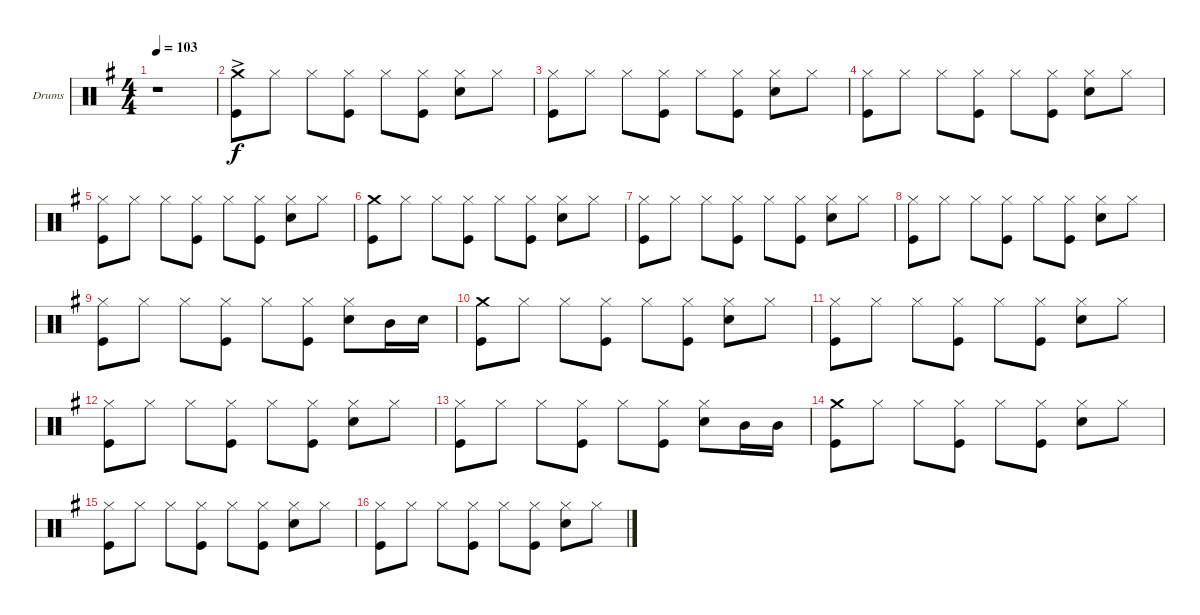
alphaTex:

\bracketExtendMode groupsimilarinstruments
\firstSystemTrackNameOrientation horizontal
\otherSystemsTrackNameOrientation horizontal
\track ("Drumkit" "Drums") {instrument percussion}
\staff {score}
\articulation defaults
\ts (4 4)
\tempo 103
\clef neutral
\ks eminor
r.1{dy f} |
("Crash medium (hit)"{ac} "Kick (hit)").8 "Hi-Hat (closed)".8 "Hi-Hat (closed)".8 ("Hi-Hat (closed)" "Kick (hit)").8 "Hi-Hat (closed)".8 ("Hi-Hat (closed)" "Kick (hit)").8 ("Hi-Hat (closed)" "Snare (hit) 2").8 "Hi-Hat (closed)".8 |
("Hi-Hat (closed)" "Kick (hit)").8 "Hi-Hat (closed)".8 "Hi-Hat (closed)".8 ("Hi-Hat (closed)" "Kick (hit)").8 "Hi-Hat (closed)".8 ("Hi-Hat (closed)" "Kick (hit)").8 ("Hi-Hat (closed)" "Snare (hit) 2").8 "Hi-Hat (closed)".8 |
("Hi-Hat (closed)" "Kick (hit)").8 "Hi-Hat (closed)".8 "Hi-Hat (closed)".8 ("Hi-Hat (closed)" "Kick (hit)").8 "Hi-Hat (closed)".8 ("Hi-Hat (closed)" "Kick (hit)").8 ("Hi-Hat (closed)" "Snare (hit) 2").8 "Hi-Hat (closed)".8 |
("Hi-Hat (closed)" "Kick (hit)").8 "Hi-Hat (closed)".8 "Hi-Hat (closed)".8 ("Hi-Hat (closed)" "Kick (hit)").8 "Hi-Hat (closed)".8 ("Hi-Hat (closed)" "Kick (hit)").8 ("Hi-Hat (closed)" "Snare (hit) 2").8 "Hi-Hat (closed)".8 |
("Crash medium (hit)" "Kick (hit)").8 "Hi-Hat (closed)".8 "Hi-Hat (closed)".8 ("Hi-Hat (closed)" "Kick (hit)").8 "Hi-Hat (closed)".8 ("Hi-Hat (closed)" "Kick (hit)").8 ("Hi-Hat (closed)" "Snare (hit) 2").8 "Hi-Hat (closed)".8 |
("Hi-Hat (closed)" "Kick (hit)").8 "Hi-Hat (closed)".8 "Hi-Hat (closed)".8 ("Hi-Hat (closed)" "Kick (hit)").8 "Hi-Hat (closed)".8 ("Hi-Hat (closed)" "Kick (hit)").8 ("Hi-Hat (closed)" "Snare (hit) 2").8 "Hi-Hat (closed)".8 |
("Hi-Hat (closed)" "Kick (hit)").8 "Hi-Hat (closed)".8 "Hi-Hat (closed)".8 ("Hi-Hat (closed)" "Kick (hit)").8 "Hi-Hat (closed)".8 ("Hi-Hat (closed)" "Kick (hit)").8 ("Hi-Hat (closed)" "Snare (hit) 2").8 "Hi-Hat (closed)".8 |
("Hi-Hat (closed)" "Kick (hit)").8 "Hi-Hat (closed)".8 "Hi-Hat (closed)".8 ("Hi-Hat (closed)" "Kick (hit)").8 "Hi-Hat (closed)".8 ("Hi-Hat (closed)" "Kick (hit)").8 ("Hi-Hat (closed)" "Snare (hit) 2").8 "Mid Tom (hit)".16 "Snare (hit) 2".16 |
("Crash medium (hit)" "Kick (hit)").8 "Hi-Hat (closed)".8 "Hi-Hat (closed)".8 ("Hi-Hat (closed)" "Kick (hit)").8 "Hi-Hat (closed)".8 ("Hi-Hat (closed)" "Kick (hit)").8 ("Hi-Hat (closed)" "Snare (hit) 2").8 "Hi-Hat (closed)".8 |
("Hi-Hat (closed)" "Kick (hit)").8 "Hi-Hat (closed)".8 "Hi-Hat (closed)".8 ("Hi-Hat (closed)" "Kick (hit)").8 "Hi-Hat (closed)".8 ("Hi-Hat (closed)" "Kick (hit)").8 ("Hi-Hat (closed)" "Snare (hit) 2").8 "Hi-Hat (closed)".8 |
("Hi-Hat (closed)" "Kick (hit)").8 "Hi-Hat (closed)".8 "Hi-Hat (closed)".8 ("Hi-Hat (closed)" "Kick (hit)").8 "Hi-Hat (closed)".8 ("Hi-Hat (closed)" "Kick (hit)").8 ("Hi-Hat (closed)" "Snare (hit) 2").8 "Hi-Hat (closed)".8 |
("Hi-Hat (closed)" "Kick (hit)").8 "Hi-Hat (closed)".8 "Hi-Hat (closed)".8 ("Hi-Hat (closed)" "Kick (hit)").8 "Hi-Hat (closed)".8 ("Hi-Hat (closed)" "Kick (hit)").8 ("Hi-Hat (closed)" "Snare (hit) 2").8 "Mid Tom (hit)".16 "Mid Tom (hit)".16 |
("Crash medium (hit)" "Kick (hit)").8 "Hi-Hat (closed)".8 "Hi-Hat (closed)".8 ("Hi-Hat (closed)" "Kick (hit)").8 "Hi-Hat (closed)".8 ("Hi-Hat (closed)" "Kick (hit)").8 ("Hi-Hat (closed)" "Snare (hit) 2").8 "Hi-Hat (closed)".8 |
("Hi-Hat (closed)" "Kick (hit)").8 "Hi-Hat (closed)".8 "Hi-Hat (closed)".8 ("Hi-Hat (closed)" "Kick (hit)").8 "Hi-Hat (closed)".8 ("Hi-Hat (closed)" "Kick (hit)").8 ("Hi-Hat (closed)" "Snare (hit) 2").8 "Hi-Hat (closed)".8 |
("Hi-Hat (closed)" "Kick (hit)").8 "Hi-Hat (closed)".8 "Hi-Hat (closed)".8 ("Hi-Hat (closed)" "Kick (hit)").8 "Hi-Hat (closed)".8 ("Hi-Hat (closed)" "Kick (hit)").8 ("Hi-Hat (closed)" "Snare (hit) 2").8 "Hi-Hat (closed)".8
